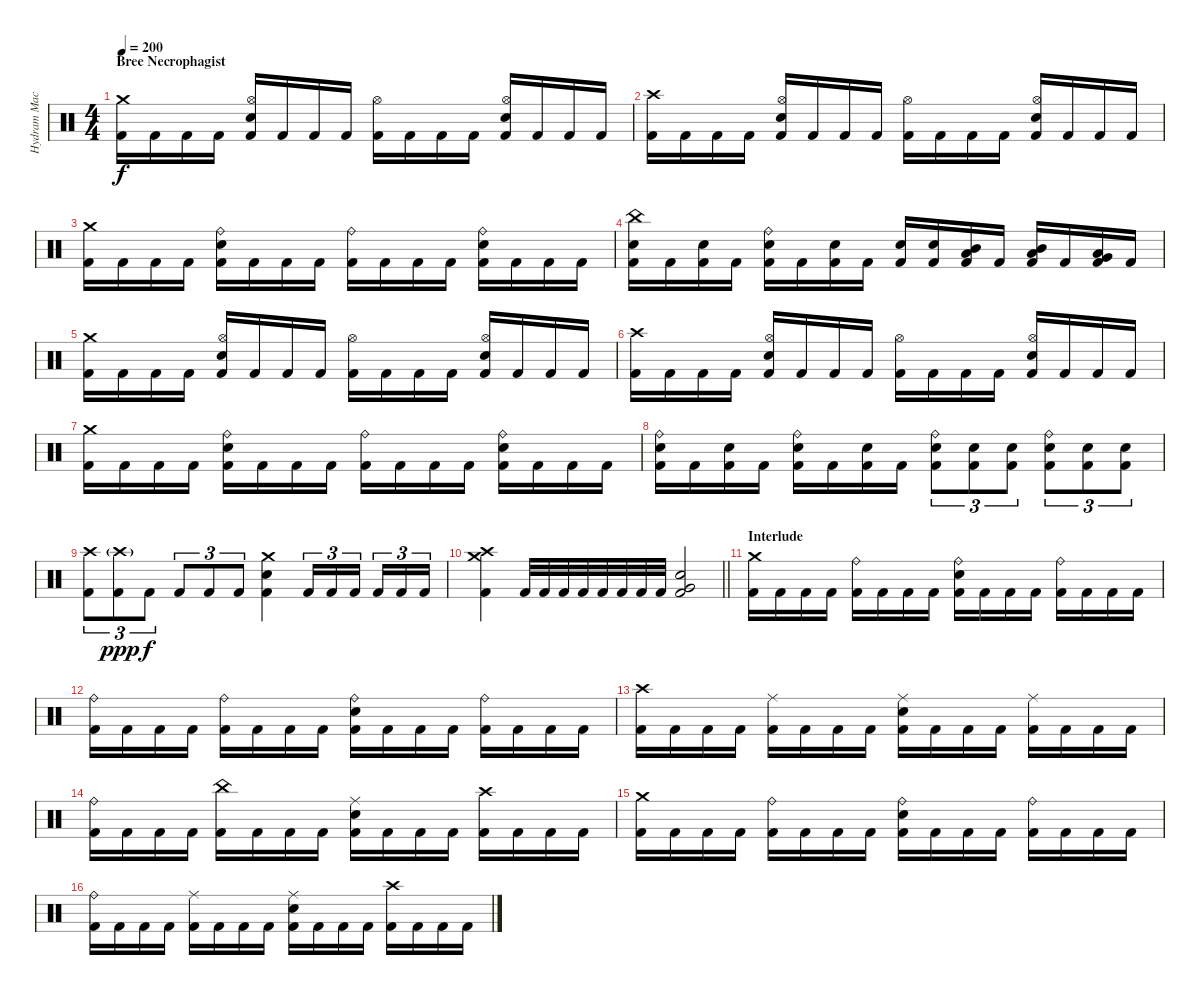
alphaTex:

\track ("Hydram Machine" "Hydram Mac") {instrument percussion}
\staff {score}
\articulation defaults
\ts (4 4)
\section ("" "Bree Necrophagist")
\tempo 200
\clef neutral
\ks c
("Crash medium (hit)" "Kick (hit) 2").16{dy f} "Kick (hit) 2".16 "Kick (hit) 2".16 "Kick (hit) 2".16 ("Hi-Hat (open)" "Electric Snare (hit)" "Kick (hit) 2").16 "Kick (hit) 2".16 "Kick (hit) 2".16 "Kick (hit) 2".16 ("Hi-Hat (open)" "Kick (hit) 2").16 "Kick (hit) 2".16 "Kick (hit) 2".16 "Kick (hit) 2".16 ("Hi-Hat (open)" "Electric Snare (hit)" "Kick (hit) 2").16 "Kick (hit) 2".16 "Kick (hit) 2".16 "Kick (hit) 2".16 |
("Crash high (hit)" "Kick (hit) 2").16 "Kick (hit) 2".16 "Kick (hit) 2".16 "Kick (hit) 2".16 ("Hi-Hat (open)" "Electric Snare (hit)" "Kick (hit) 2").16 "Kick (hit) 2".16 "Kick (hit) 2".16 "Kick (hit) 2".16 ("Hi-Hat (open)" "Kick (hit) 2").16 "Kick (hit) 2".16 "Kick (hit) 2".16 "Kick (hit) 2".16 ("Hi-Hat (open)" "Electric Snare (hit)" "Kick (hit) 2").16 "Kick (hit) 2".16 "Kick (hit) 2".16 "Kick (hit) 2".16 |
("Crash medium (hit)" "Kick (hit) 2").16 "Kick (hit) 2".16 "Kick (hit) 2".16 "Kick (hit) 2".16 ("Ride (bell)" "Electric Snare (hit)" "Kick (hit) 2").16 "Kick (hit) 2".16 "Kick (hit) 2".16 "Kick (hit) 2".16 ("Ride (bell)" "Kick (hit) 2").16 "Kick (hit) 2".16 "Kick (hit) 2".16 "Kick (hit) 2".16 ("Ride (bell)" "Electric Snare (hit)" "Kick (hit) 2").16 "Kick (hit) 2".16 "Kick (hit) 2".16 "Kick (hit) 2".16 |
("China (hit)" "Electric Snare (hit)" "Kick (hit) 2").16 "Kick (hit) 2".16 ("Electric Snare (hit)" "Kick (hit) 2").16 "Kick (hit) 2".16 ("Ride (bell)" "Electric Snare (hit)" "Kick (hit) 2").16 "Kick (hit) 2".16 ("Electric Snare (hit)" "Kick (hit) 2").16 "Kick (hit) 2".16 ("Electric Snare (hit)" "Kick (hit) 2").16 ("Electric Snare (hit)" "Kick (hit) 2").16 ("Mid Tom (hit)" "Low Tom (hit)" "Kick (hit) 2").16 "Kick (hit) 2".16 ("Low Tom (hit)" "Mid Tom (hit)" "Kick (hit) 2").16 "Kick (hit) 2".16 ("Very Low Tom (hit)" "Low Tom (hit)" "Kick (hit) 2").16 "Kick (hit) 2".16 |
("Crash medium (hit)" "Kick (hit) 2").16 "Kick (hit) 2".16 "Kick (hit) 2".16 "Kick (hit) 2".16 ("Hi-Hat (open)" "Electric Snare (hit)" "Kick (hit) 2").16 "Kick (hit) 2".16 "Kick (hit) 2".16 "Kick (hit) 2".16 ("Hi-Hat (open)" "Kick (hit) 2").16 "Kick (hit) 2".16 "Kick (hit) 2".16 "Kick (hit) 2".16 ("Hi-Hat (open)" "Electric Snare (hit)" "Kick (hit) 2").16 "Kick (hit) 2".16 "Kick (hit) 2".16 "Kick (hit) 2".16 |
("Crash high (hit)" "Kick (hit) 2").16 "Kick (hit) 2".16 "Kick (hit) 2".16 "Kick (hit) 2".16 ("Hi-Hat (open)" "Electric Snare (hit)" "Kick (hit) 2").16 "Kick (hit) 2".16 "Kick (hit) 2".16 "Kick (hit) 2".16 ("Hi-Hat (open)" "Kick (hit) 2").16 "Kick (hit) 2".16 "Kick (hit) 2".16 "Kick (hit) 2".16 ("Hi-Hat (open)" "Electric Snare (hit)" "Kick (hit) 2").16 "Kick (hit) 2".16 "Kick (hit) 2".16 "Kick (hit) 2".16 |
("Crash medium (hit)" "Kick (hit) 2").16 "Kick (hit) 2".16 "Kick (hit) 2".16 "Kick (hit) 2".16 ("Ride (bell)" "Electric Snare (hit)" "Kick (hit) 2").16 "Kick (hit) 2".16 "Kick (hit) 2".16 "Kick (hit) 2".16 ("Ride (bell)" "Kick (hit) 2").16 "Kick (hit) 2".16 "Kick (hit) 2".16 "Kick (hit) 2".16 ("Ride (bell)" "Electric Snare (hit)" "Kick (hit) 2").16 "Kick (hit) 2".16 "Kick (hit) 2".16 "Kick (hit) 2".16 |
("Ride (bell)" "Electric Snare (hit)" "Kick (hit) 2").16 "Kick (hit) 2".16 ("Electric Snare (hit)" "Kick (hit) 2").16 "Kick (hit) 2".16 ("Ride (bell)" "Electric Snare (hit)" "Kick (hit) 2").16 "Kick (hit) 2".16 ("Electric Snare (hit)" "Kick (hit) 2").16 "Kick (hit) 2".16 ("Ride (bell)" "Electric Snare (hit)" "Kick (hit) 2").8{tu (3 2)} ("Electric Snare (hit)" "Kick (hit) 2").8{tu (3 2)} ("Electric Snare (hit)" "Kick (hit) 2").8{tu (3 2)} ("Ride (bell)" "Electric Snare (hit)" "Kick (hit) 2").8{tu (3 2)} ("Electric Snare (hit)" "Kick (hit) 2").8{tu (3 2)} ("Electric Snare (hit)" "Kick (hit) 2").8{tu (3 2)} |
("Crash high (hit)" "Kick (hit) 2").8{tu (3 2)} ("Crash high (hit)"{g} "Kick (hit) 2").8{tu (3 2) dy ppp} "Kick (hit) 2".8{tu (3 2) dy f} "Kick (hit) 2".8{tu (3 2)} "Kick (hit) 2".8{tu (3 2)} "Kick (hit) 2".8{tu (3 2)} ("Crash medium (hit)" "Electric Snare (hit)" "Kick (hit) 2").4 "Kick (hit) 2".16{tu (3 2)} "Kick (hit) 2".16{tu (3 2)} "Kick (hit) 2".16{tu (3 2) beam splitsecondary} "Kick (hit) 2".16{tu (3 2)} "Kick (hit) 2".16{tu (3 2)} "Kick (hit) 2".16{tu (3 2)} |
\barLineRight lightlight
("Crash medium (hit)" "Crash high (hit)" "Kick (hit) 2").4 "Kick (hit) 2".32 "Kick (hit) 2".32 "Kick (hit) 2".32 "Kick (hit) 2".32 "Kick (hit) 2".32 "Kick (hit) 2".32 "Kick (hit) 2".32 "Kick (hit) 2".32 ("Electric Snare (hit)" "Very Low Tom (hit)" "Kick (hit) 2").2 |
\section ("" "Interlude")
("Crash medium (hit)" "Kick (hit) 2").16 "Kick (hit) 2".16 "Kick (hit) 2".16 "Kick (hit) 2".16 ("Ride (bell)" "Kick (hit) 2").16 "Kick (hit) 2".16 "Kick (hit) 2".16 "Kick (hit) 2".16 ("Ride (bell)" "Electric Snare (hit)" "Kick (hit) 2").16 "Kick (hit) 2".16 "Kick (hit) 2".16 "Kick (hit) 2".16 ("Ride (bell)" "Kick (hit) 2").16 "Kick (hit) 2".16 "Kick (hit) 2".16 "Kick (hit) 2".16 |
("Ride (bell)" "Kick (hit) 2").16 "Kick (hit) 2".16 "Kick (hit) 2".16 "Kick (hit) 2".16 ("Ride (bell)" "Kick (hit) 2").16 "Kick (hit) 2".16 "Kick (hit) 2".16 "Kick (hit) 2".16 ("Ride (bell)" "Electric Snare (hit)" "Kick (hit) 2").16 "Kick (hit) 2".16 "Kick (hit) 2".16 "Kick (hit) 2".16 ("Ride (bell)" "Kick (hit) 2").16 "Kick (hit) 2".16 "Kick (hit) 2".16 "Kick (hit) 2".16 |
("Crash high (hit)" "Kick (hit) 2").16 "Kick (hit) 2".16 "Kick (hit) 2".16 "Kick (hit) 2".16 ("Ride (middle)" "Kick (hit) 2").16 "Kick (hit) 2".16 "Kick (hit) 2".16 "Kick (hit) 2".16 ("Ride (middle)" "Electric Snare (hit)" "Kick (hit) 2").16 "Kick (hit) 2".16 "Kick (hit) 2".16 "Kick (hit) 2".16 ("Ride (middle)" "Kick (hit) 2").16 "Kick (hit) 2".16 "Kick (hit) 2".16 "Kick (hit) 2".16 |
("Ride (bell)" "Kick (hit) 2").16 "Kick (hit) 2".16 "Kick (hit) 2".16 "Kick (hit) 2".16 ("China (hit)" "Kick (hit) 2").16 "Kick (hit) 2".16 "Kick (hit) 2".16 "Kick (hit) 2".16 ("Ride (middle)" "Electric Snare (hit)" "Kick (hit) 2").16 "Kick (hit) 2".16 "Kick (hit) 2".16 "Kick (hit) 2".16 ("Crash high (hit)" "Kick (hit) 2").16 "Kick (hit) 2".16 "Kick (hit) 2".16 "Kick (hit) 2".16 |
("Crash medium (hit)" "Kick (hit) 2").16 "Kick (hit) 2".16 "Kick (hit) 2".16 "Kick (hit) 2".16 ("Ride (bell)" "Kick (hit) 2").16 "Kick (hit) 2".16 "Kick (hit) 2".16 "Kick (hit) 2".16 ("Ride (bell)" "Electric Snare (hit)" "Kick (hit) 2").16 "Kick (hit) 2".16 "Kick (hit) 2".16 "Kick (hit) 2".16 ("Ride (bell)" "Kick (hit) 2").16 "Kick (hit) 2".16 "Kick (hit) 2".16 "Kick (hit) 2".16 |
("Ride (bell)" "Kick (hit) 2").16 "Kick (hit) 2".16 "Kick (hit) 2".16 "Kick (hit) 2".16 ("Ride (middle)" "Kick (hit) 2").16 "Kick (hit) 2".16 "Kick (hit) 2".16 "Kick (hit) 2".16 ("Ride (middle)" "Electric Snare (hit)" "Kick (hit) 2").16 "Kick (hit) 2".16 "Kick (hit) 2".16 "Kick (hit) 2".16 ("Crash high (hit)" "Kick (hit) 2").16 "Kick (hit) 2".16 "Kick (hit) 2".16 "Kick (hit) 2".16
